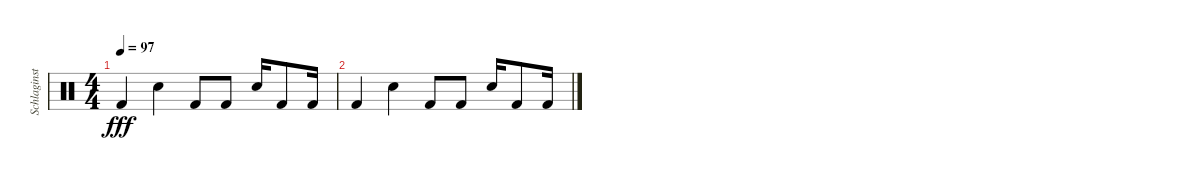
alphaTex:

\track ("Schlaginstrumente - Auswahl" "Schlaginst") {instrument percussion}
\staff {score}
\articulation defaults
\ts (4 4)
\tempo 97
\clef neutral
\ks c "Kick (hit) 2".4{dy fff} "Hand Clap (hit)".4 "Kick (hit) 2".8 "Kick (hit) 2".8 "Hand Clap (hit)".16 "Kick (hit) 2".8 "Kick (hit) 2".16
|
"Kick (hit) 2".4 "Hand Clap (hit)".4 "Kick (hit) 2".8 "Kick (hit) 2".8 "Hand Clap (hit)".16 "Kick (hit) 2".8 "Kick (hit) 2".16
